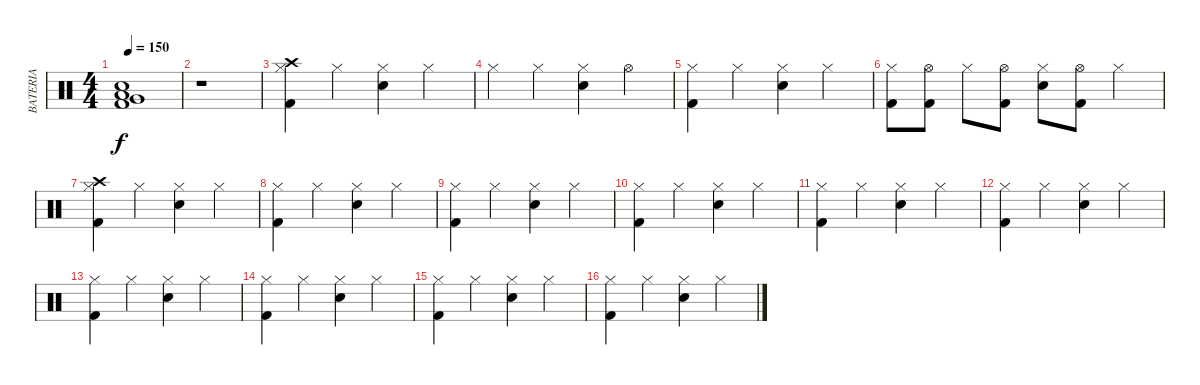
\track ("BATERIA" "BATERIA") {instrument percussion}
\staff {score}
\articulation defaults
\ts (4 4)
\tempo 150
\clef neutral
\ks c
("Snare (hit) 2" "Very Low Tom (hit)" "Low Floor Tom (hit)" "Kick (hit) 2").1{dy f} |
r.1 |
("Crash high (hit)" "Hi-Hat (closed)" "Kick (hit) 2").4 "Hi-Hat (closed)".4 ("Hi-Hat (closed)" "Snare (hit) 2").4 "Hi-Hat (closed)".4 |
"Hi-Hat (closed)".4 "Hi-Hat (closed)".4 ("Hi-Hat (closed)" "Snare (hit) 2").4 "Hi-Hat (open)".4 |
("Hi-Hat (closed)" "Kick (hit) 2").4 "Hi-Hat (closed)".4 ("Hi-Hat (closed)" "Snare (hit) 2").4 "Hi-Hat (closed)".4 |
("Hi-Hat (closed)" "Kick (hit) 2").8 ("Hi-Hat (open)" "Kick (hit) 2").8 "Hi-Hat (closed)".8 ("Hi-Hat (open)" "Kick (hit) 2").8 ("Hi-Hat (closed)" "Snare (hit) 2").8 ("Hi-Hat (open)" "Kick (hit) 2").8 "Hi-Hat (closed)".4 |
("Crash high (hit)" "Hi-Hat (closed)" "Kick (hit) 2").4 "Hi-Hat (closed)".4 ("Hi-Hat (closed)" "Snare (hit) 2").4 "Hi-Hat (closed)".4 |
("Hi-Hat (closed)" "Kick (hit) 2").4 "Hi-Hat (closed)".4 ("Hi-Hat (closed)" "Snare (hit) 2").4 "Hi-Hat (closed)".4 |
("Hi-Hat (closed)" "Kick (hit) 2").4 "Hi-Hat (closed)".4 ("Hi-Hat (closed)" "Snare (hit) 2").4 "Hi-Hat (closed)".4 |
("Hi-Hat (closed)" "Kick (hit) 2").4 "Hi-Hat (closed)".4 ("Hi-Hat (closed)" "Snare (hit) 2").4 "Hi-Hat (closed)".4 |
("Hi-Hat (closed)" "Kick (hit) 2").4 "Hi-Hat (closed)".4 ("Hi-Hat (closed)" "Snare (hit) 2").4 "Hi-Hat (closed)".4 |
("Hi-Hat (closed)" "Kick (hit) 2").4 "Hi-Hat (closed)".4 ("Hi-Hat (closed)" "Snare (hit) 2").4 "Hi-Hat (closed)".4 |
("Hi-Hat (closed)" "Kick (hit) 2").4 "Hi-Hat (closed)".4 ("Hi-Hat (closed)" "Snare (hit) 2").4 "Hi-Hat (closed)".4 |
("Hi-Hat (closed)" "Kick (hit) 2").4 "Hi-Hat (closed)".4 ("Hi-Hat (closed)" "Snare (hit) 2").4 "Hi-Hat (closed)".4 |
("Hi-Hat (closed)" "Kick (hit) 2").4 "Hi-Hat (closed)".4 ("Hi-Hat (closed)" "Snare (hit) 2").4 "Hi-Hat (closed)".4 |
("Hi-Hat (closed)" "Kick (hit) 2").4 "Hi-Hat (closed)".4 ("Hi-Hat (closed)" "Snare (hit) 2").4 "Hi-Hat (closed)".4
